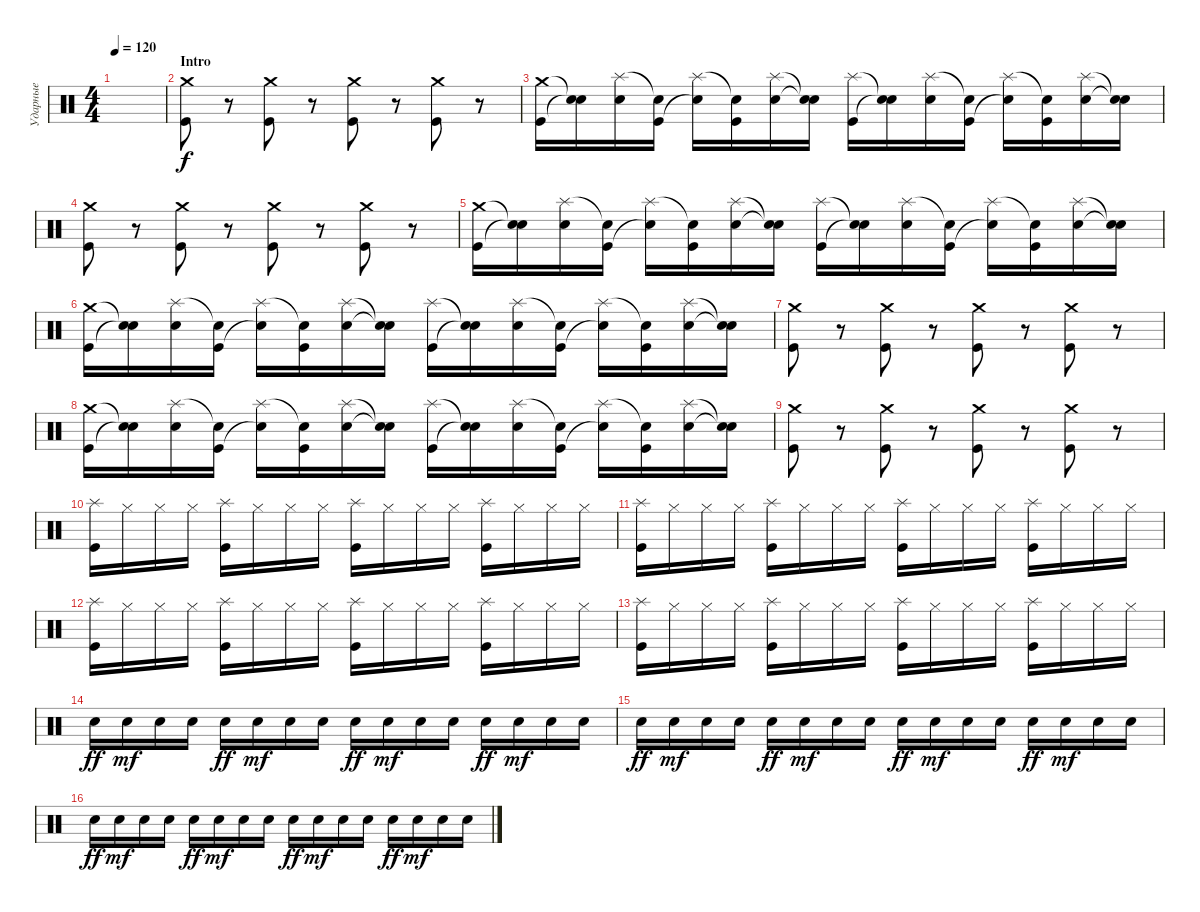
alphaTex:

\track ("Ударные" "Ударные") {instrument percussion}
\staff {score}
\articulation defaults
\ts (4 4)
\tempo 120
\clef neutral
\ks c
|
\section ("" "Intro ")
("Crash medium (hit)" "Kick (hit)").8 r.8 ("Crash medium (hit)" "Kick (hit)").8 r.8 ("Crash medium (hit)" "Kick (hit)").8 r.8 ("Crash medium (hit)" "Kick (hit)").8 r.8 |
("Crash medium (hit)" "Kick (hit)").16 ("Snare (hit)"{t} "Snare (hit)"{t}).16 ("Splash (hit)" "Electric Snare (hit)").16 ("Snare (hit)"{t} "Kick (hit)").16 ("Splash (hit)" "Snare (hit)"{t}).16 ("Snare (hit)"{t} "Kick (hit)").16 ("Splash (hit)" "Electric Snare (hit)").16 ("Snare (hit)"{t} "Snare (hit)"{t}).16 ("Splash (hit)" "Kick (hit)").16 ("Snare (hit)"{t} "Snare (hit)"{t}).16 ("Splash (hit)" "Electric Snare (hit)").16 ("Snare (hit)"{t} "Kick (hit)").16 ("Splash (hit)" "Snare (hit)"{t}).16 ("Snare (hit)"{t} "Kick (hit)").16 ("Splash (hit)" "Electric Snare (hit)").16 ("Snare (hit)"{t} "Snare (hit)"{t}).16 |
("Crash medium (hit)" "Kick (hit)").8 r.8 ("Crash medium (hit)" "Kick (hit)").8 r.8 ("Crash medium (hit)" "Kick (hit)").8 r.8 ("Crash medium (hit)" "Kick (hit)").8 r.8 |
("Crash medium (hit)" "Kick (hit)").16 ("Snare (hit)"{t} "Snare (hit)"{t}).16 ("Splash (hit)" "Electric Snare (hit)").16 ("Snare (hit)"{t} "Kick (hit)").16 ("Splash (hit)" "Snare (hit)"{t}).16 ("Snare (hit)"{t} "Kick (hit)").16 ("Splash (hit)" "Electric Snare (hit)").16 ("Snare (hit)"{t} "Snare (hit)"{t}).16 ("Splash (hit)" "Kick (hit)").16 ("Snare (hit)"{t} "Snare (hit)"{t}).16 ("Splash (hit)" "Electric Snare (hit)").16 ("Snare (hit)"{t} "Kick (hit)").16 ("Splash (hit)" "Snare (hit)"{t}).16 ("Snare (hit)"{t} "Kick (hit)").16 ("Splash (hit)" "Electric Snare (hit)").16 ("Snare (hit)"{t} "Snare (hit)"{t}).16 |
("Crash medium (hit)" "Kick (hit)").16 ("Snare (hit)"{t} "Snare (hit)"{t}).16 ("Splash (hit)" "Electric Snare (hit)").16 ("Snare (hit)"{t} "Kick (hit)").16 ("Splash (hit)" "Snare (hit)"{t}).16 ("Snare (hit)"{t} "Kick (hit)").16 ("Splash (hit)" "Electric Snare (hit)").16 ("Snare (hit)"{t} "Snare (hit)"{t}).16 ("Splash (hit)" "Kick (hit)").16 ("Snare (hit)"{t} "Snare (hit)"{t}).16 ("Splash (hit)" "Electric Snare (hit)").16 ("Snare (hit)"{t} "Kick (hit)").16 ("Splash (hit)" "Snare (hit)"{t}).16 ("Snare (hit)"{t} "Kick (hit)").16 ("Splash (hit)" "Electric Snare (hit)").16 ("Snare (hit)"{t} "Snare (hit)"{t}).16 |
("Crash medium (hit)" "Kick (hit)").8 r.8 ("Crash medium (hit)" "Kick (hit)").8 r.8 ("Crash medium (hit)" "Kick (hit)").8 r.8 ("Crash medium (hit)" "Kick (hit)").8 r.8 |
("Crash medium (hit)" "Kick (hit)").16 ("Snare (hit)"{t} "Snare (hit)"{t}).16 ("Splash (hit)" "Electric Snare (hit)").16 ("Snare (hit)"{t} "Kick (hit)").16 ("Splash (hit)" "Snare (hit)"{t}).16 ("Snare (hit)"{t} "Kick (hit)").16 ("Splash (hit)" "Electric Snare (hit)").16 ("Snare (hit)"{t} "Snare (hit)"{t}).16 ("Splash (hit)" "Kick (hit)").16 ("Snare (hit)"{t} "Snare (hit)"{t}).16 ("Splash (hit)" "Electric Snare (hit)").16 ("Snare (hit)"{t} "Kick (hit)").16 ("Splash (hit)" "Snare (hit)"{t}).16 ("Snare (hit)"{t} "Kick (hit)").16 ("Splash (hit)" "Electric Snare (hit)").16 ("Snare (hit)"{t} "Snare (hit)"{t}).16 |
("Crash medium (hit)" "Kick (hit)").8 r.8 ("Crash medium (hit)" "Kick (hit)").8 r.8 ("Crash medium (hit)" "Kick (hit)").8 r.8 ("Crash medium (hit)" "Kick (hit)").8 r.8 |
("Splash (hit)" "Kick (hit)").16 "Hi-Hat (closed)".16 "Hi-Hat (closed)".16 "Hi-Hat (closed)".16 ("Splash (hit)" "Kick (hit)").16 "Hi-Hat (closed)".16 "Hi-Hat (closed)".16 "Hi-Hat (closed)".16 ("Splash (hit)" "Kick (hit)").16 "Hi-Hat (closed)".16 "Hi-Hat (closed)".16 "Hi-Hat (closed)".16 ("Splash (hit)" "Kick (hit)").16 "Hi-Hat (closed)".16 "Hi-Hat (closed)".16 "Hi-Hat (closed)".16 |
("Splash (hit)" "Kick (hit)").16 "Hi-Hat (closed)".16 "Hi-Hat (closed)".16 "Hi-Hat (closed)".16 ("Splash (hit)" "Kick (hit)").16 "Hi-Hat (closed)".16 "Hi-Hat (closed)".16 "Hi-Hat (closed)".16 ("Splash (hit)" "Kick (hit)").16 "Hi-Hat (closed)".16 "Hi-Hat (closed)".16 "Hi-Hat (closed)".16 ("Splash (hit)" "Kick (hit)").16 "Hi-Hat (closed)".16 "Hi-Hat (closed)".16 "Hi-Hat (closed)".16 |
("Splash (hit)" "Kick (hit)").16 "Hi-Hat (closed)".16 "Hi-Hat (closed)".16 "Hi-Hat (closed)".16 ("Splash (hit)" "Kick (hit)").16 "Hi-Hat (closed)".16 "Hi-Hat (closed)".16 "Hi-Hat (closed)".16 ("Splash (hit)" "Kick (hit)").16 "Hi-Hat (closed)".16 "Hi-Hat (closed)".16 "Hi-Hat (closed)".16 ("Splash (hit)" "Kick (hit)").16 "Hi-Hat (closed)".16 "Hi-Hat (closed)".16 "Hi-Hat (closed)".16 |
("Splash (hit)" "Kick (hit)").16 "Hi-Hat (closed)".16 "Hi-Hat (closed)".16 "Hi-Hat (closed)".16 ("Splash (hit)" "Kick (hit)").16 "Hi-Hat (closed)".16 "Hi-Hat (closed)".16 "Hi-Hat (closed)".16 ("Splash (hit)" "Kick (hit)").16 "Hi-Hat (closed)".16 "Hi-Hat (closed)".16 "Hi-Hat (closed)".16 ("Splash (hit)" "Kick (hit)").16 "Hi-Hat (closed)".16 "Hi-Hat (closed)".16 "Hi-Hat (closed)".16 |
"Electric Snare (hit)".16{dy ff} "Electric Snare (hit)".16{dy mf} "Electric Snare (hit)".16 "Electric Snare (hit)".16 "Electric Snare (hit)".16{dy ff} "Electric Snare (hit)".16{dy mf} "Electric Snare (hit)".16 "Electric Snare (hit)".16 "Electric Snare (hit)".16{dy ff} "Electric Snare (hit)".16{dy mf} "Electric Snare (hit)".16 "Electric Snare (hit)".16 "Electric Snare (hit)".16{dy ff} "Electric Snare (hit)".16{dy mf} "Electric Snare (hit)".16 "Electric Snare (hit)".16 |
"Electric Snare (hit)".16{dy ff} "Electric Snare (hit)".16{dy mf} "Electric Snare (hit)".16 "Electric Snare (hit)".16 "Electric Snare (hit)".16{dy ff} "Electric Snare (hit)".16{dy mf} "Electric Snare (hit)".16 "Electric Snare (hit)".16 "Electric Snare (hit)".16{dy ff} "Electric Snare (hit)".16{dy mf} "Electric Snare (hit)".16 "Electric Snare (hit)".16 "Electric Snare (hit)".16{dy ff} "Electric Snare (hit)".16{dy mf} "Electric Snare (hit)".16 "Electric Snare (hit)".16 |
"Electric Snare (hit)".16{dy ff} "Electric Snare (hit)".16{dy mf} "Electric Snare (hit)".16 "Electric Snare (hit)".16 "Electric Snare (hit)".16{dy ff} "Electric Snare (hit)".16{dy mf} "Electric Snare (hit)".16 "Electric Snare (hit)".16 "Electric Snare (hit)".16{dy ff} "Electric Snare (hit)".16{dy mf} "Electric Snare (hit)".16 "Electric Snare (hit)".16 "Electric Snare (hit)".16{dy ff} "Electric Snare (hit)".16{dy mf} "Electric Snare (hit)".16 "Electric Snare (hit)".16
